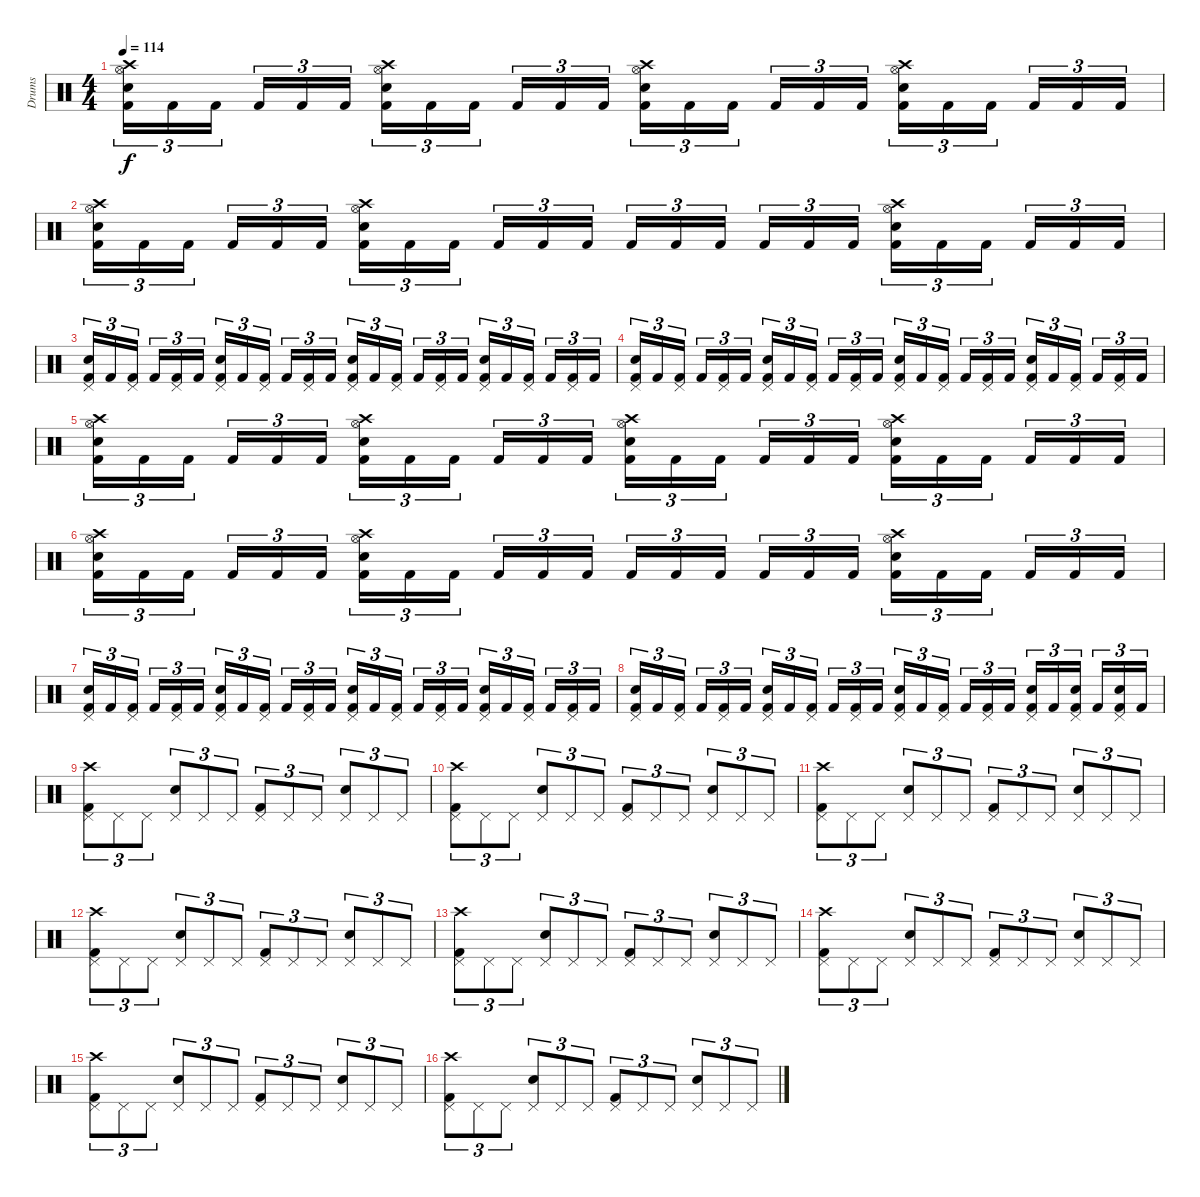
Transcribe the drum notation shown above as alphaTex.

\track ("Drums" "Drums") {instrument percussion}
\staff {score}
\articulation defaults
\ts (4 4)
\tempo 114
\clef neutral
\ks c
("Hi-Hat (open)" "Electric Snare (hit)" "Crash high (hit)" "Kick (hit) 2").16{tu (3 2) dy f} "Kick (hit) 2".16{tu (3 2)} "Kick (hit) 2".16{tu (3 2)} "Kick (hit) 2".16{tu (3 2)} "Kick (hit) 2".16{tu (3 2)} "Kick (hit) 2".16{tu (3 2)} ("Hi-Hat (open)" "Electric Snare (hit)" "Crash high (hit)" "Kick (hit) 2").16{tu (3 2)} "Kick (hit) 2".16{tu (3 2)} "Kick (hit) 2".16{tu (3 2)} "Kick (hit) 2".16{tu (3 2)} "Kick (hit) 2".16{tu (3 2)} "Kick (hit) 2".16{tu (3 2)} ("Hi-Hat (open)" "Electric Snare (hit)" "Crash high (hit)" "Kick (hit) 2").16{tu (3 2)} "Kick (hit) 2".16{tu (3 2)} "Kick (hit) 2".16{tu (3 2)} "Kick (hit) 2".16{tu (3 2)} "Kick (hit) 2".16{tu (3 2)} "Kick (hit) 2".16{tu (3 2)} ("Hi-Hat (open)" "Electric Snare (hit)" "Crash high (hit)" "Kick (hit) 2").16{tu (3 2)} "Kick (hit) 2".16{tu (3 2)} "Kick (hit) 2".16{tu (3 2)} "Kick (hit) 2".16{tu (3 2)} "Kick (hit) 2".16{tu (3 2)} "Kick (hit) 2".16{tu (3 2)} |
("Hi-Hat (open)" "Electric Snare (hit)" "Crash high (hit)" "Kick (hit) 2").16{tu (3 2)} "Kick (hit) 2".16{tu (3 2)} "Kick (hit) 2".16{tu (3 2)} "Kick (hit) 2".16{tu (3 2)} "Kick (hit) 2".16{tu (3 2)} "Kick (hit) 2".16{tu (3 2)} ("Hi-Hat (open)" "Electric Snare (hit)" "Crash high (hit)" "Kick (hit) 2").16{tu (3 2)} "Kick (hit) 2".16{tu (3 2)} "Kick (hit) 2".16{tu (3 2)} "Kick (hit) 2".16{tu (3 2)} "Kick (hit) 2".16{tu (3 2)} "Kick (hit) 2".16{tu (3 2)} "Kick (hit) 2".16{tu (3 2)} "Kick (hit) 2".16{tu (3 2)} "Kick (hit) 2".16{tu (3 2)} "Kick (hit) 2".16{tu (3 2)} "Kick (hit) 2".16{tu (3 2)} "Kick (hit) 2".16{tu (3 2)} ("Hi-Hat (open)" "Electric Snare (hit)" "Crash high (hit)" "Kick (hit) 2").16{tu (3 2)} "Kick (hit) 2".16{tu (3 2)} "Kick (hit) 2".16{tu (3 2)} "Kick (hit) 2".16{tu (3 2)} "Kick (hit) 2".16{tu (3 2)} "Kick (hit) 2".16{tu (3 2)} |
("Pedal Hi-Hat (hit)" "Electric Snare (hit)" "Kick (hit) 2").16{tu (3 2)} "Kick (hit) 2".16{tu (3 2)} ("Pedal Hi-Hat (hit)" "Kick (hit) 2").16{tu (3 2)} "Kick (hit) 2".16{tu (3 2)} ("Pedal Hi-Hat (hit)" "Kick (hit) 2").16{tu (3 2)} "Kick (hit) 2".16{tu (3 2)} ("Pedal Hi-Hat (hit)" "Electric Snare (hit)" "Kick (hit) 2").16{tu (3 2)} "Kick (hit) 2".16{tu (3 2)} ("Pedal Hi-Hat (hit)" "Kick (hit) 2").16{tu (3 2)} "Kick (hit) 2".16{tu (3 2)} ("Pedal Hi-Hat (hit)" "Kick (hit) 2").16{tu (3 2)} "Kick (hit) 2".16{tu (3 2)} ("Pedal Hi-Hat (hit)" "Electric Snare (hit)" "Kick (hit) 2").16{tu (3 2)} "Kick (hit) 2".16{tu (3 2)} ("Pedal Hi-Hat (hit)" "Kick (hit) 2").16{tu (3 2)} "Kick (hit) 2".16{tu (3 2)} ("Pedal Hi-Hat (hit)" "Kick (hit) 2").16{tu (3 2)} "Kick (hit) 2".16{tu (3 2)} ("Pedal Hi-Hat (hit)" "Electric Snare (hit)" "Kick (hit) 2").16{tu (3 2)} "Kick (hit) 2".16{tu (3 2)} ("Pedal Hi-Hat (hit)" "Kick (hit) 2").16{tu (3 2)} "Kick (hit) 2".16{tu (3 2)} ("Pedal Hi-Hat (hit)" "Kick (hit) 2").16{tu (3 2)} "Kick (hit) 2".16{tu (3 2)} |
("Pedal Hi-Hat (hit)" "Electric Snare (hit)" "Kick (hit) 2").16{tu (3 2)} "Kick (hit) 2".16{tu (3 2)} ("Pedal Hi-Hat (hit)" "Kick (hit) 2").16{tu (3 2)} "Kick (hit) 2".16{tu (3 2)} ("Pedal Hi-Hat (hit)" "Kick (hit) 2").16{tu (3 2)} "Kick (hit) 2".16{tu (3 2)} ("Pedal Hi-Hat (hit)" "Electric Snare (hit)" "Kick (hit) 2").16{tu (3 2)} "Kick (hit) 2".16{tu (3 2)} ("Pedal Hi-Hat (hit)" "Kick (hit) 2").16{tu (3 2)} "Kick (hit) 2".16{tu (3 2)} ("Pedal Hi-Hat (hit)" "Kick (hit) 2").16{tu (3 2)} "Kick (hit) 2".16{tu (3 2)} ("Pedal Hi-Hat (hit)" "Electric Snare (hit)" "Kick (hit) 2").16{tu (3 2)} "Kick (hit) 2".16{tu (3 2)} ("Pedal Hi-Hat (hit)" "Kick (hit) 2").16{tu (3 2)} "Kick (hit) 2".16{tu (3 2)} ("Pedal Hi-Hat (hit)" "Kick (hit) 2").16{tu (3 2)} "Kick (hit) 2".16{tu (3 2)} ("Pedal Hi-Hat (hit)" "Electric Snare (hit)" "Kick (hit) 2").16{tu (3 2)} "Kick (hit) 2".16{tu (3 2)} ("Pedal Hi-Hat (hit)" "Kick (hit) 2").16{tu (3 2)} "Kick (hit) 2".16{tu (3 2)} ("Pedal Hi-Hat (hit)" "Kick (hit) 2").16{tu (3 2)} "Kick (hit) 2".16{tu (3 2)} |
("Hi-Hat (open)" "Electric Snare (hit)" "Crash high (hit)" "Kick (hit) 2").16{tu (3 2)} "Kick (hit) 2".16{tu (3 2)} "Kick (hit) 2".16{tu (3 2)} "Kick (hit) 2".16{tu (3 2)} "Kick (hit) 2".16{tu (3 2)} "Kick (hit) 2".16{tu (3 2)} ("Hi-Hat (open)" "Electric Snare (hit)" "Crash high (hit)" "Kick (hit) 2").16{tu (3 2)} "Kick (hit) 2".16{tu (3 2)} "Kick (hit) 2".16{tu (3 2)} "Kick (hit) 2".16{tu (3 2)} "Kick (hit) 2".16{tu (3 2)} "Kick (hit) 2".16{tu (3 2)} ("Hi-Hat (open)" "Electric Snare (hit)" "Crash high (hit)" "Kick (hit) 2").16{tu (3 2)} "Kick (hit) 2".16{tu (3 2)} "Kick (hit) 2".16{tu (3 2)} "Kick (hit) 2".16{tu (3 2)} "Kick (hit) 2".16{tu (3 2)} "Kick (hit) 2".16{tu (3 2)} ("Hi-Hat (open)" "Electric Snare (hit)" "Crash high (hit)" "Kick (hit) 2").16{tu (3 2)} "Kick (hit) 2".16{tu (3 2)} "Kick (hit) 2".16{tu (3 2)} "Kick (hit) 2".16{tu (3 2)} "Kick (hit) 2".16{tu (3 2)} "Kick (hit) 2".16{tu (3 2)} |
("Hi-Hat (open)" "Electric Snare (hit)" "Crash high (hit)" "Kick (hit) 2").16{tu (3 2)} "Kick (hit) 2".16{tu (3 2)} "Kick (hit) 2".16{tu (3 2)} "Kick (hit) 2".16{tu (3 2)} "Kick (hit) 2".16{tu (3 2)} "Kick (hit) 2".16{tu (3 2)} ("Hi-Hat (open)" "Electric Snare (hit)" "Crash high (hit)" "Kick (hit) 2").16{tu (3 2)} "Kick (hit) 2".16{tu (3 2)} "Kick (hit) 2".16{tu (3 2)} "Kick (hit) 2".16{tu (3 2)} "Kick (hit) 2".16{tu (3 2)} "Kick (hit) 2".16{tu (3 2)} "Kick (hit) 2".16{tu (3 2)} "Kick (hit) 2".16{tu (3 2)} "Kick (hit) 2".16{tu (3 2)} "Kick (hit) 2".16{tu (3 2)} "Kick (hit) 2".16{tu (3 2)} "Kick (hit) 2".16{tu (3 2)} ("Hi-Hat (open)" "Electric Snare (hit)" "Crash high (hit)" "Kick (hit) 2").16{tu (3 2)} "Kick (hit) 2".16{tu (3 2)} "Kick (hit) 2".16{tu (3 2)} "Kick (hit) 2".16{tu (3 2)} "Kick (hit) 2".16{tu (3 2)} "Kick (hit) 2".16{tu (3 2)} |
("Pedal Hi-Hat (hit)" "Electric Snare (hit)" "Kick (hit) 2").16{tu (3 2)} "Kick (hit) 2".16{tu (3 2)} ("Pedal Hi-Hat (hit)" "Kick (hit) 2").16{tu (3 2)} "Kick (hit) 2".16{tu (3 2)} ("Pedal Hi-Hat (hit)" "Kick (hit) 2").16{tu (3 2)} "Kick (hit) 2".16{tu (3 2)} ("Pedal Hi-Hat (hit)" "Electric Snare (hit)" "Kick (hit) 2").16{tu (3 2)} "Kick (hit) 2".16{tu (3 2)} ("Pedal Hi-Hat (hit)" "Kick (hit) 2").16{tu (3 2)} "Kick (hit) 2".16{tu (3 2)} ("Pedal Hi-Hat (hit)" "Kick (hit) 2").16{tu (3 2)} "Kick (hit) 2".16{tu (3 2)} ("Pedal Hi-Hat (hit)" "Electric Snare (hit)" "Kick (hit) 2").16{tu (3 2)} "Kick (hit) 2".16{tu (3 2)} ("Pedal Hi-Hat (hit)" "Kick (hit) 2").16{tu (3 2)} "Kick (hit) 2".16{tu (3 2)} ("Pedal Hi-Hat (hit)" "Kick (hit) 2").16{tu (3 2)} "Kick (hit) 2".16{tu (3 2)} ("Pedal Hi-Hat (hit)" "Electric Snare (hit)" "Kick (hit) 2").16{tu (3 2)} "Kick (hit) 2".16{tu (3 2)} ("Pedal Hi-Hat (hit)" "Kick (hit) 2").16{tu (3 2)} "Kick (hit) 2".16{tu (3 2)} ("Pedal Hi-Hat (hit)" "Kick (hit) 2").16{tu (3 2)} "Kick (hit) 2".16{tu (3 2)} |
("Pedal Hi-Hat (hit)" "Electric Snare (hit)" "Kick (hit) 2").16{tu (3 2)} "Kick (hit) 2".16{tu (3 2)} ("Pedal Hi-Hat (hit)" "Kick (hit) 2").16{tu (3 2)} "Kick (hit) 2".16{tu (3 2)} ("Pedal Hi-Hat (hit)" "Kick (hit) 2").16{tu (3 2)} "Kick (hit) 2".16{tu (3 2)} ("Pedal Hi-Hat (hit)" "Electric Snare (hit)" "Kick (hit) 2").16{tu (3 2)} "Kick (hit) 2".16{tu (3 2)} ("Pedal Hi-Hat (hit)" "Kick (hit) 2").16{tu (3 2)} "Kick (hit) 2".16{tu (3 2)} ("Pedal Hi-Hat (hit)" "Kick (hit) 2").16{tu (3 2)} "Kick (hit) 2".16{tu (3 2)} ("Pedal Hi-Hat (hit)" "Electric Snare (hit)" "Kick (hit) 2").16{tu (3 2)} "Kick (hit) 2".16{tu (3 2)} ("Pedal Hi-Hat (hit)" "Kick (hit) 2").16{tu (3 2)} "Kick (hit) 2".16{tu (3 2)} ("Pedal Hi-Hat (hit)" "Kick (hit) 2").16{tu (3 2)} "Kick (hit) 2".16{tu (3 2)} ("Pedal Hi-Hat (hit)" "Electric Snare (hit)" "Kick (hit) 2").16{tu (3 2)} "Kick (hit) 2".16{tu (3 2)} ("Pedal Hi-Hat (hit)" "Electric Snare (hit)" "Kick (hit) 2").16{tu (3 2)} "Kick (hit) 2".16{tu (3 2)} ("Pedal Hi-Hat (hit)" "Electric Snare (hit)" "Kick (hit) 2").16{tu (3 2)} "Kick (hit) 2".16{tu (3 2)} |
("Pedal Hi-Hat (hit)" "Kick (hit) 2" "Crash high (hit)").8{tu (3 2)} "Pedal Hi-Hat (hit)".8{tu (3 2)} "Pedal Hi-Hat (hit)".8{tu (3 2)} ("Pedal Hi-Hat (hit)" "Electric Snare (hit)").8{tu (3 2)} "Pedal Hi-Hat (hit)".8{tu (3 2)} "Pedal Hi-Hat (hit)".8{tu (3 2)} ("Pedal Hi-Hat (hit)" "Kick (hit) 2").8{tu (3 2)} "Pedal Hi-Hat (hit)".8{tu (3 2)} "Pedal Hi-Hat (hit)".8{tu (3 2)} ("Pedal Hi-Hat (hit)" "Electric Snare (hit)").8{tu (3 2)} "Pedal Hi-Hat (hit)".8{tu (3 2)} "Pedal Hi-Hat (hit)".8{tu (3 2)} |
("Pedal Hi-Hat (hit)" "Kick (hit) 2" "Crash high (hit)").8{tu (3 2)} "Pedal Hi-Hat (hit)".8{tu (3 2)} "Pedal Hi-Hat (hit)".8{tu (3 2)} ("Pedal Hi-Hat (hit)" "Electric Snare (hit)").8{tu (3 2)} "Pedal Hi-Hat (hit)".8{tu (3 2)} "Pedal Hi-Hat (hit)".8{tu (3 2)} ("Pedal Hi-Hat (hit)" "Kick (hit) 2").8{tu (3 2)} "Pedal Hi-Hat (hit)".8{tu (3 2)} "Pedal Hi-Hat (hit)".8{tu (3 2)} ("Pedal Hi-Hat (hit)" "Electric Snare (hit)").8{tu (3 2)} "Pedal Hi-Hat (hit)".8{tu (3 2)} "Pedal Hi-Hat (hit)".8{tu (3 2)} |
("Pedal Hi-Hat (hit)" "Kick (hit) 2" "Crash high (hit)").8{tu (3 2)} "Pedal Hi-Hat (hit)".8{tu (3 2)} "Pedal Hi-Hat (hit)".8{tu (3 2)} ("Pedal Hi-Hat (hit)" "Electric Snare (hit)").8{tu (3 2)} "Pedal Hi-Hat (hit)".8{tu (3 2)} "Pedal Hi-Hat (hit)".8{tu (3 2)} ("Pedal Hi-Hat (hit)" "Kick (hit) 2").8{tu (3 2)} "Pedal Hi-Hat (hit)".8{tu (3 2)} "Pedal Hi-Hat (hit)".8{tu (3 2)} ("Pedal Hi-Hat (hit)" "Electric Snare (hit)").8{tu (3 2)} "Pedal Hi-Hat (hit)".8{tu (3 2)} "Pedal Hi-Hat (hit)".8{tu (3 2)} |
("Pedal Hi-Hat (hit)" "Kick (hit) 2" "Crash high (hit)").8{tu (3 2)} "Pedal Hi-Hat (hit)".8{tu (3 2)} "Pedal Hi-Hat (hit)".8{tu (3 2)} ("Pedal Hi-Hat (hit)" "Electric Snare (hit)").8{tu (3 2)} "Pedal Hi-Hat (hit)".8{tu (3 2)} "Pedal Hi-Hat (hit)".8{tu (3 2)} ("Pedal Hi-Hat (hit)" "Kick (hit) 2").8{tu (3 2)} "Pedal Hi-Hat (hit)".8{tu (3 2)} "Pedal Hi-Hat (hit)".8{tu (3 2)} ("Pedal Hi-Hat (hit)" "Electric Snare (hit)").8{tu (3 2)} "Pedal Hi-Hat (hit)".8{tu (3 2)} "Pedal Hi-Hat (hit)".8{tu (3 2)} |
("Pedal Hi-Hat (hit)" "Kick (hit) 2" "Crash high (hit)").8{tu (3 2)} "Pedal Hi-Hat (hit)".8{tu (3 2)} "Pedal Hi-Hat (hit)".8{tu (3 2)} ("Pedal Hi-Hat (hit)" "Electric Snare (hit)").8{tu (3 2)} "Pedal Hi-Hat (hit)".8{tu (3 2)} "Pedal Hi-Hat (hit)".8{tu (3 2)} ("Pedal Hi-Hat (hit)" "Kick (hit) 2").8{tu (3 2)} "Pedal Hi-Hat (hit)".8{tu (3 2)} "Pedal Hi-Hat (hit)".8{tu (3 2)} ("Pedal Hi-Hat (hit)" "Electric Snare (hit)").8{tu (3 2)} "Pedal Hi-Hat (hit)".8{tu (3 2)} "Pedal Hi-Hat (hit)".8{tu (3 2)} |
("Pedal Hi-Hat (hit)" "Kick (hit) 2" "Crash high (hit)").8{tu (3 2)} "Pedal Hi-Hat (hit)".8{tu (3 2)} "Pedal Hi-Hat (hit)".8{tu (3 2)} ("Pedal Hi-Hat (hit)" "Electric Snare (hit)").8{tu (3 2)} "Pedal Hi-Hat (hit)".8{tu (3 2)} "Pedal Hi-Hat (hit)".8{tu (3 2)} ("Pedal Hi-Hat (hit)" "Kick (hit) 2").8{tu (3 2)} "Pedal Hi-Hat (hit)".8{tu (3 2)} "Pedal Hi-Hat (hit)".8{tu (3 2)} ("Pedal Hi-Hat (hit)" "Electric Snare (hit)").8{tu (3 2)} "Pedal Hi-Hat (hit)".8{tu (3 2)} "Pedal Hi-Hat (hit)".8{tu (3 2)} |
("Pedal Hi-Hat (hit)" "Kick (hit) 2" "Crash high (hit)").8{tu (3 2)} "Pedal Hi-Hat (hit)".8{tu (3 2)} "Pedal Hi-Hat (hit)".8{tu (3 2)} ("Pedal Hi-Hat (hit)" "Electric Snare (hit)").8{tu (3 2)} "Pedal Hi-Hat (hit)".8{tu (3 2)} "Pedal Hi-Hat (hit)".8{tu (3 2)} ("Pedal Hi-Hat (hit)" "Kick (hit) 2").8{tu (3 2)} "Pedal Hi-Hat (hit)".8{tu (3 2)} "Pedal Hi-Hat (hit)".8{tu (3 2)} ("Pedal Hi-Hat (hit)" "Electric Snare (hit)").8{tu (3 2)} "Pedal Hi-Hat (hit)".8{tu (3 2)} "Pedal Hi-Hat (hit)".8{tu (3 2)} |
("Pedal Hi-Hat (hit)" "Kick (hit) 2" "Crash high (hit)").8{tu (3 2)} "Pedal Hi-Hat (hit)".8{tu (3 2)} "Pedal Hi-Hat (hit)".8{tu (3 2)} ("Pedal Hi-Hat (hit)" "Electric Snare (hit)").8{tu (3 2)} "Pedal Hi-Hat (hit)".8{tu (3 2)} "Pedal Hi-Hat (hit)".8{tu (3 2)} ("Pedal Hi-Hat (hit)" "Kick (hit) 2").8{tu (3 2)} "Pedal Hi-Hat (hit)".8{tu (3 2)} "Pedal Hi-Hat (hit)".8{tu (3 2)} ("Pedal Hi-Hat (hit)" "Electric Snare (hit)").8{tu (3 2)} "Pedal Hi-Hat (hit)".8{tu (3 2)} "Pedal Hi-Hat (hit)".8{tu (3 2)}
